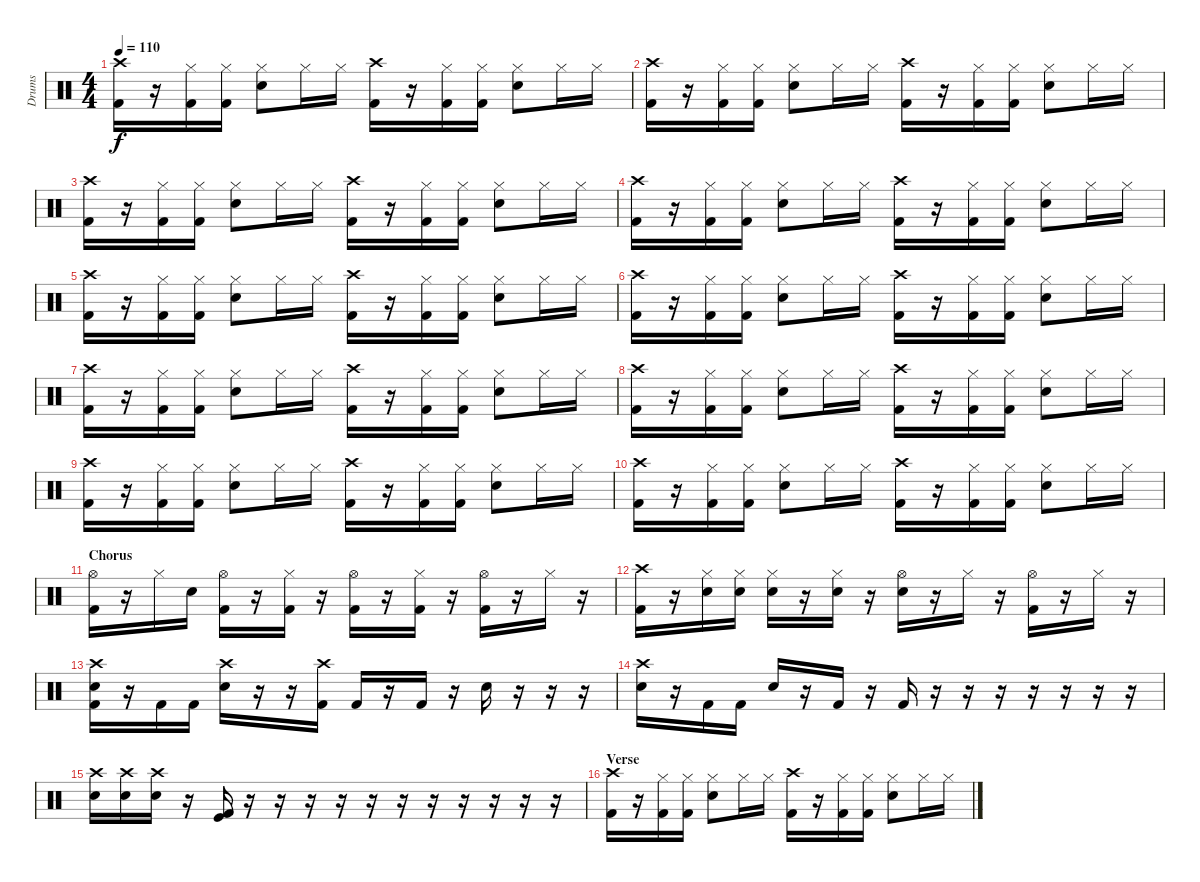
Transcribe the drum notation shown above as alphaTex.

\track ("Drums" "Drums") {instrument percussion}
\staff {score}
\articulation defaults
\ts (4 4)
\tempo 110
\clef neutral
\ks c
("Crash high (hit)" "Kick (hit) 2").16{dy f} r.16 ("Hi-Hat (closed)" "Kick (hit) 2").16 ("Hi-Hat (closed)" "Kick (hit) 2").16 ("Hi-Hat (closed)" "Snare (hit) 2").8 "Hi-Hat (closed)".16 "Hi-Hat (closed)".16 ("Crash high (hit)" "Kick (hit) 2").16 r.16 ("Hi-Hat (closed)" "Kick (hit) 2").16 ("Hi-Hat (closed)" "Kick (hit) 2").16 ("Hi-Hat (closed)" "Snare (hit) 2").8 "Hi-Hat (closed)".16 "Hi-Hat (closed)".16 |
("Crash high (hit)" "Kick (hit) 2").16 r.16 ("Hi-Hat (closed)" "Kick (hit) 2").16 ("Hi-Hat (closed)" "Kick (hit) 2").16 ("Hi-Hat (closed)" "Snare (hit) 2").8 "Hi-Hat (closed)".16 "Hi-Hat (closed)".16 ("Crash high (hit)" "Kick (hit) 2").16 r.16 ("Hi-Hat (closed)" "Kick (hit) 2").16 ("Hi-Hat (closed)" "Kick (hit) 2").16 ("Hi-Hat (closed)" "Snare (hit) 2").8 "Hi-Hat (closed)".16 "Hi-Hat (closed)".16 |
("Crash high (hit)" "Kick (hit) 2").16 r.16 ("Hi-Hat (closed)" "Kick (hit) 2").16 ("Hi-Hat (closed)" "Kick (hit) 2").16 ("Hi-Hat (closed)" "Snare (hit) 2").8 "Hi-Hat (closed)".16 "Hi-Hat (closed)".16 ("Crash high (hit)" "Kick (hit) 2").16 r.16 ("Hi-Hat (closed)" "Kick (hit) 2").16 ("Hi-Hat (closed)" "Kick (hit) 2").16 ("Hi-Hat (closed)" "Snare (hit) 2").8 "Hi-Hat (closed)".16 "Hi-Hat (closed)".16 |
("Crash high (hit)" "Kick (hit) 2").16 r.16 ("Hi-Hat (closed)" "Kick (hit) 2").16 ("Hi-Hat (closed)" "Kick (hit) 2").16 ("Hi-Hat (closed)" "Snare (hit) 2").8 "Hi-Hat (closed)".16 "Hi-Hat (closed)".16 ("Crash high (hit)" "Kick (hit) 2").16 r.16 ("Hi-Hat (closed)" "Kick (hit) 2").16 ("Hi-Hat (closed)" "Kick (hit) 2").16 ("Hi-Hat (closed)" "Snare (hit) 2").8 "Hi-Hat (closed)".16 "Hi-Hat (closed)".16 |
("Crash high (hit)" "Kick (hit) 2").16 r.16 ("Hi-Hat (closed)" "Kick (hit) 2").16 ("Hi-Hat (closed)" "Kick (hit) 2").16 ("Hi-Hat (closed)" "Snare (hit) 2").8 "Hi-Hat (closed)".16 "Hi-Hat (closed)".16 ("Crash high (hit)" "Kick (hit) 2").16 r.16 ("Hi-Hat (closed)" "Kick (hit) 2").16 ("Hi-Hat (closed)" "Kick (hit) 2").16 ("Hi-Hat (closed)" "Snare (hit) 2").8 "Hi-Hat (closed)".16 "Hi-Hat (closed)".16 |
("Crash high (hit)" "Kick (hit) 2").16 r.16 ("Hi-Hat (closed)" "Kick (hit) 2").16 ("Hi-Hat (closed)" "Kick (hit) 2").16 ("Hi-Hat (closed)" "Snare (hit) 2").8 "Hi-Hat (closed)".16 "Hi-Hat (closed)".16 ("Crash high (hit)" "Kick (hit) 2").16 r.16 ("Hi-Hat (closed)" "Kick (hit) 2").16 ("Hi-Hat (closed)" "Kick (hit) 2").16 ("Hi-Hat (closed)" "Snare (hit) 2").8 "Hi-Hat (closed)".16 "Hi-Hat (closed)".16 |
("Crash high (hit)" "Kick (hit) 2").16 r.16 ("Hi-Hat (closed)" "Kick (hit) 2").16 ("Hi-Hat (closed)" "Kick (hit) 2").16 ("Hi-Hat (closed)" "Snare (hit) 2").8 "Hi-Hat (closed)".16 "Hi-Hat (closed)".16 ("Crash high (hit)" "Kick (hit) 2").16 r.16 ("Hi-Hat (closed)" "Kick (hit) 2").16 ("Hi-Hat (closed)" "Kick (hit) 2").16 ("Hi-Hat (closed)" "Snare (hit) 2").8 "Hi-Hat (closed)".16 "Hi-Hat (closed)".16 |
("Crash high (hit)" "Kick (hit) 2").16 r.16 ("Hi-Hat (closed)" "Kick (hit) 2").16 ("Hi-Hat (closed)" "Kick (hit) 2").16 ("Hi-Hat (closed)" "Snare (hit) 2").8 "Hi-Hat (closed)".16 "Hi-Hat (closed)".16 ("Crash high (hit)" "Kick (hit) 2").16 r.16 ("Hi-Hat (closed)" "Kick (hit) 2").16 ("Hi-Hat (closed)" "Kick (hit) 2").16 ("Hi-Hat (closed)" "Snare (hit) 2").8 "Hi-Hat (closed)".16 "Hi-Hat (closed)".16 |
("Crash high (hit)" "Kick (hit) 2").16 r.16 ("Hi-Hat (closed)" "Kick (hit) 2").16 ("Hi-Hat (closed)" "Kick (hit) 2").16 ("Hi-Hat (closed)" "Snare (hit) 2").8 "Hi-Hat (closed)".16 "Hi-Hat (closed)".16 ("Crash high (hit)" "Kick (hit) 2").16 r.16 ("Hi-Hat (closed)" "Kick (hit) 2").16 ("Hi-Hat (closed)" "Kick (hit) 2").16 ("Hi-Hat (closed)" "Snare (hit) 2").8 "Hi-Hat (closed)".16 "Hi-Hat (closed)".16 |
("Crash high (hit)" "Kick (hit) 2").16 r.16 ("Hi-Hat (closed)" "Kick (hit) 2").16 ("Hi-Hat (closed)" "Kick (hit) 2").16 ("Hi-Hat (closed)" "Snare (hit) 2").8 "Hi-Hat (closed)".16 "Hi-Hat (closed)".16 ("Crash high (hit)" "Kick (hit) 2").16 r.16 ("Hi-Hat (closed)" "Kick (hit) 2").16 ("Hi-Hat (closed)" "Kick (hit) 2").16 ("Hi-Hat (closed)" "Snare (hit) 2").8 "Hi-Hat (closed)".16 "Hi-Hat (closed)".16 |
\section ("" "Chorus")
("Hi-Hat (open)" "Kick (hit) 2").16 r.16 "Hi-Hat (closed)".16 "Snare (hit) 2".16 ("Hi-Hat (open)" "Kick (hit) 2").16 r.16 ("Hi-Hat (closed)" "Kick (hit) 2").16 r.16 ("Hi-Hat (open)" "Kick (hit) 2").16 r.16 ("Hi-Hat (closed)" "Kick (hit) 2").16 r.16 ("Hi-Hat (open)" "Kick (hit) 2").16 r.16 "Hi-Hat (closed)".16 r.16 |
("Crash high (hit)" "Kick (hit) 2").16 r.16 ("Hi-Hat (closed)" "Snare (hit) 2").16 ("Hi-Hat (closed)" "Snare (hit) 2").16 ("Hi-Hat (closed)" "Snare (hit) 2").16 r.16 ("Hi-Hat (closed)" "Snare (hit) 2").16 r.16 ("Hi-Hat (open)" "Snare (hit) 2").16 r.16 "Hi-Hat (closed)".16 r.16 ("Hi-Hat (open)" "Kick (hit) 2").16 r.16 "Hi-Hat (closed)".16 r.16 |
("Crash high (hit)" "Snare (hit) 2" "Kick (hit) 2").16 r.16 "Kick (hit) 2".16 "Kick (hit) 2".16 ("Crash high (hit)" "Snare (hit) 2").16 r.16 r.16 ("Crash high (hit)" "Kick (hit) 2").16 "Kick (hit) 2".16 r.16 "Kick (hit) 2".16 r.16 "Snare (hit) 2".16 r.16 r.16 r.16 |
("Crash high (hit)" "Snare (hit) 2").16 r.16 "Kick (hit) 2".16 "Kick (hit) 2".16 "Snare (hit) 2".16 r.16 "Kick (hit) 2".16 r.16 "Kick (hit) 2".16 r.16 r.16 r.16 r.16 r.16 r.16 r.16 |
("Crash high (hit)" "Snare (hit) 2").16 ("Crash high (hit)" "Snare (hit) 2").16 ("Crash high (hit)" "Snare (hit) 2").16 r.16 ("Kick (hit)" "Kick (hit) 2").16 r.16 r.16 r.16 r.16 r.16 r.16 r.16 r.16 r.16 r.16 r.16 |
\section ("" "Verse")
("Crash high (hit)" "Kick (hit) 2").16 r.16 ("Hi-Hat (closed)" "Kick (hit) 2").16 ("Hi-Hat (closed)" "Kick (hit) 2").16 ("Hi-Hat (closed)" "Snare (hit) 2").8 "Hi-Hat (closed)".16 "Hi-Hat (closed)".16 ("Crash high (hit)" "Kick (hit) 2").16 r.16 ("Hi-Hat (closed)" "Kick (hit) 2").16 ("Hi-Hat (closed)" "Kick (hit) 2").16 ("Hi-Hat (closed)" "Snare (hit) 2").8 "Hi-Hat (closed)".16 "Hi-Hat (closed)".16
